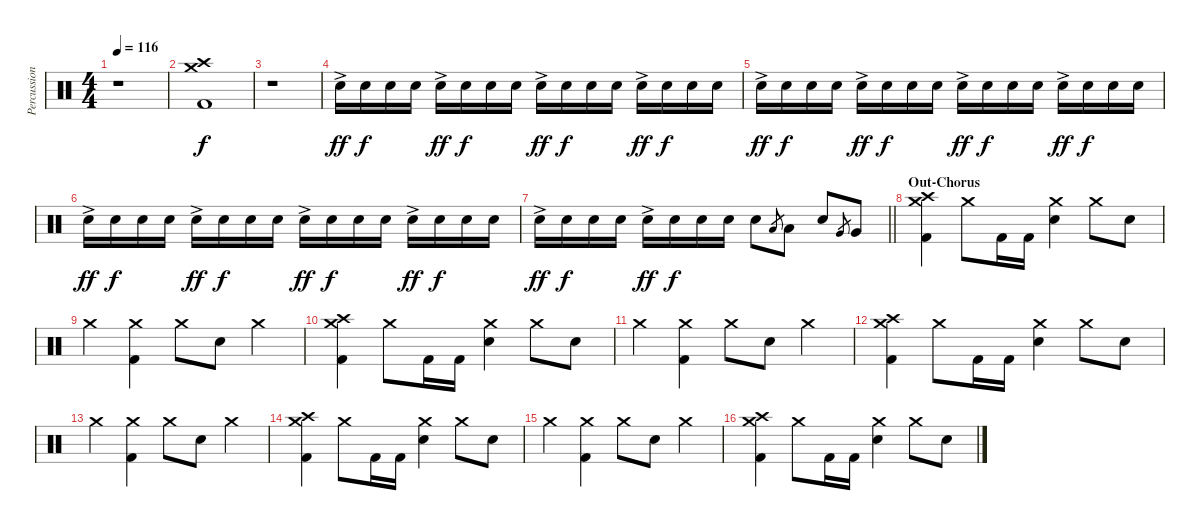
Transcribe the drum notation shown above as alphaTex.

\track ("Percussion" "Percussion") {instrument percussion}
\staff {score}
\articulation defaults
\ts (4 4)
\tempo 116
\clef neutral
\ks c
r.1{dy f} |
("Crash medium (hit)" "Crash high (hit)" "Kick (hit) 2").1 |
r.1{volume 0} |
"Electric Snare (hit)"{ac}.16{dy ff volume 14} "Electric Snare (hit)".16{dy f} "Electric Snare (hit)".16 "Electric Snare (hit)".16 "Electric Snare (hit)"{ac}.16{dy ff} "Electric Snare (hit)".16{dy f} "Electric Snare (hit)".16 "Electric Snare (hit)".16 "Electric Snare (hit)"{ac}.16{dy ff} "Electric Snare (hit)".16{dy f} "Electric Snare (hit)".16 "Electric Snare (hit)".16 "Electric Snare (hit)"{ac}.16{dy ff} "Electric Snare (hit)".16{dy f} "Electric Snare (hit)".16 "Electric Snare (hit)".16 |
"Electric Snare (hit)"{ac}.16{dy ff} "Electric Snare (hit)".16{dy f} "Electric Snare (hit)".16 "Electric Snare (hit)".16 "Electric Snare (hit)"{ac}.16{dy ff} "Electric Snare (hit)".16{dy f} "Electric Snare (hit)".16 "Electric Snare (hit)".16 "Electric Snare (hit)"{ac}.16{dy ff} "Electric Snare (hit)".16{dy f} "Electric Snare (hit)".16 "Electric Snare (hit)".16 "Electric Snare (hit)"{ac}.16{dy ff} "Electric Snare (hit)".16{dy f} "Electric Snare (hit)".16 "Electric Snare (hit)".16 |
"Electric Snare (hit)"{ac}.16{dy ff} "Electric Snare (hit)".16{dy f} "Electric Snare (hit)".16 "Electric Snare (hit)".16 "Electric Snare (hit)"{ac}.16{dy ff} "Electric Snare (hit)".16{dy f} "Electric Snare (hit)".16 "Electric Snare (hit)".16 "Electric Snare (hit)"{ac}.16{dy ff} "Electric Snare (hit)".16{dy f} "Electric Snare (hit)".16 "Electric Snare (hit)".16 "Electric Snare (hit)"{ac}.16{dy ff} "Electric Snare (hit)".16{dy f} "Electric Snare (hit)".16 "Electric Snare (hit)".16 |
\barLineRight lightlight "Electric Snare (hit)"{ac}.16{dy ff} "Electric Snare (hit)".16{dy f} "Electric Snare (hit)".16 "Electric Snare (hit)".16 "Electric Snare (hit)"{ac}.16{dy ff} "Electric Snare (hit)".16{dy f} "Electric Snare (hit)".16 "Electric Snare (hit)".16 "Electric Snare (hit)".8 "Low Tom (hit)".8{gr} "Low Tom (hit)".8 "Electric Snare (hit)".8 "Very Low Tom (hit)".8{gr} "Very Low Tom (hit)".8
|
\section ("" "Out-Chorus")
("Crash medium (hit)" "Crash high (hit)" "Kick (hit) 2").4 "Crash medium (hit)".8 "Kick (hit) 2".16 "Kick (hit) 2".16 ("Crash medium (hit)" "Electric Snare (hit)").4 "Crash medium (hit)".8 "Electric Snare (hit)".8 |
"Crash medium (hit)".4 ("Crash medium (hit)" "Kick (hit) 2").4 "Crash medium (hit)".8 "Electric Snare (hit)".8 "Crash medium (hit)".4 |
("Crash medium (hit)" "Crash high (hit)" "Kick (hit) 2").4 "Crash medium (hit)".8 "Kick (hit) 2".16 "Kick (hit) 2".16 ("Crash medium (hit)" "Electric Snare (hit)").4 "Crash medium (hit)".8 "Electric Snare (hit)".8 |
"Crash medium (hit)".4 ("Crash medium (hit)" "Kick (hit) 2").4 "Crash medium (hit)".8 "Electric Snare (hit)".8 "Crash medium (hit)".4 |
("Crash medium (hit)" "Crash high (hit)" "Kick (hit) 2").4 "Crash medium (hit)".8 "Kick (hit) 2".16 "Kick (hit) 2".16 ("Crash medium (hit)" "Electric Snare (hit)").4 "Crash medium (hit)".8 "Electric Snare (hit)".8 |
"Crash medium (hit)".4 ("Crash medium (hit)" "Kick (hit) 2").4 "Crash medium (hit)".8 "Electric Snare (hit)".8 "Crash medium (hit)".4 |
("Crash medium (hit)" "Crash high (hit)" "Kick (hit) 2").4 "Crash medium (hit)".8 "Kick (hit) 2".16 "Kick (hit) 2".16 ("Crash medium (hit)" "Electric Snare (hit)").4 "Crash medium (hit)".8 "Electric Snare (hit)".8 |
"Crash medium (hit)".4 ("Crash medium (hit)" "Kick (hit) 2").4 "Crash medium (hit)".8 "Electric Snare (hit)".8 "Crash medium (hit)".4 |
("Crash medium (hit)" "Crash high (hit)" "Kick (hit) 2").4 "Crash medium (hit)".8 "Kick (hit) 2".16 "Kick (hit) 2".16 ("Crash medium (hit)" "Electric Snare (hit)").4 "Crash medium (hit)".8 "Electric Snare (hit)".8
